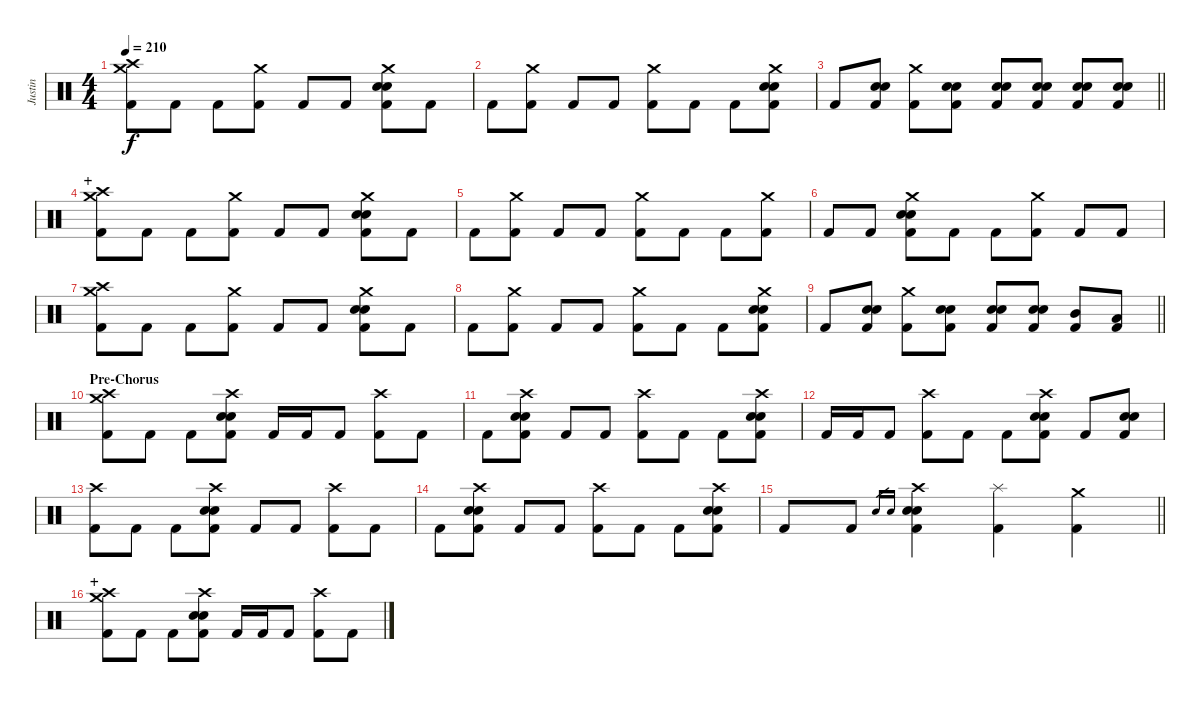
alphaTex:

\track ("Justin" "Justin") {instrument percussion}
\staff {score}
\articulation defaults
\ts (4 4)
\tempo 210
\clef neutral
\ks c
("Crash medium (hit)" "Crash high (hit)" "Kick (hit) 2").8{dy f} "Kick (hit) 2".8 "Kick (hit) 2".8 ("Crash medium (hit)" "Kick (hit) 2").8 "Kick (hit) 2".8 "Kick (hit) 2".8 ("Crash medium (hit)" "Electric Snare (hit)" "Snare (hit) 2" "Kick (hit) 2").8 "Kick (hit) 2".8 |
"Kick (hit) 2".8 ("Crash medium (hit)" "Kick (hit) 2").8 "Kick (hit) 2".8 "Kick (hit) 2".8 ("Crash medium (hit)" "Kick (hit) 2").8 "Kick (hit) 2".8 "Kick (hit) 2".8 ("Crash medium (hit)" "Electric Snare (hit)" "Snare (hit) 2" "Kick (hit) 2").8 |
\barLineRight lightlight "Kick (hit) 2".8
("Electric Snare (hit)" "Snare (hit) 2" "Kick (hit) 2").8 ("Crash medium (hit)" "Kick (hit) 2").8 ("Electric Snare (hit)" "Snare (hit) 2" "Kick (hit) 2").8 ("Electric Snare (hit)" "Snare (hit) 2" "Kick (hit) 2").8 ("Electric Snare (hit)" "Snare (hit) 2" "Kick (hit) 2").8 ("Electric Snare (hit)" "Snare (hit) 2" "Kick (hit) 2").8 ("Electric Snare (hit)" "Snare (hit) 2" "Kick (hit) 2").8 |
\section ("" "+")
("Crash medium (hit)" "Crash high (hit)" "Kick (hit) 2").8 "Kick (hit) 2".8 "Kick (hit) 2".8 ("Crash medium (hit)" "Kick (hit) 2").8 "Kick (hit) 2".8 "Kick (hit) 2".8 ("Crash medium (hit)" "Electric Snare (hit)" "Snare (hit) 2" "Kick (hit) 2").8 "Kick (hit) 2".8 |
"Kick (hit) 2".8 ("Crash medium (hit)" "Kick (hit) 2").8 "Kick (hit) 2".8 "Kick (hit) 2".8 ("Crash medium (hit)" "Kick (hit) 2").8 "Kick (hit) 2".8 "Kick (hit) 2".8 ("Crash medium (hit)" "Kick (hit) 2").8 |
"Kick (hit) 2".8 "Kick (hit) 2".8 ("Crash medium (hit)" "Electric Snare (hit)" "Snare (hit) 2" "Kick (hit) 2").8 "Kick (hit) 2".8 "Kick (hit) 2".8 ("Crash medium (hit)" "Kick (hit) 2").8 "Kick (hit) 2".8 "Kick (hit) 2".8 |
("Crash medium (hit)" "Crash high (hit)" "Kick (hit) 2").8 "Kick (hit) 2".8 "Kick (hit) 2".8 ("Crash medium (hit)" "Kick (hit) 2").8 "Kick (hit) 2".8 "Kick (hit) 2".8 ("Crash medium (hit)" "Electric Snare (hit)" "Snare (hit) 2" "Kick (hit) 2").8 "Kick (hit) 2".8 |
"Kick (hit) 2".8 ("Crash medium (hit)" "Kick (hit) 2").8 "Kick (hit) 2".8 "Kick (hit) 2".8 ("Crash medium (hit)" "Kick (hit) 2").8 "Kick (hit) 2".8 "Kick (hit) 2".8 ("Crash medium (hit)" "Electric Snare (hit)" "Snare (hit) 2" "Kick (hit) 2").8 |
\barLineRight lightlight "Kick (hit) 2".8
("Electric Snare (hit)" "Snare (hit) 2" "Kick (hit) 2").8 ("Crash medium (hit)" "Kick (hit) 2").8 ("Electric Snare (hit)" "Snare (hit) 2" "Kick (hit) 2").8 ("Electric Snare (hit)" "Snare (hit) 2" "Kick (hit) 2").8 ("Electric Snare (hit)" "Snare (hit) 2" "Kick (hit) 2").8 ("Mid Tom (hit)" "Kick (hit) 2").8 ("Low Tom (hit)" "Kick (hit) 2").8 |
\section ("" "Pre-Chorus")
("Crash high (hit)" "Crash medium (hit)" "Kick (hit) 2").8 "Kick (hit) 2".8 "Kick (hit) 2".8 ("Crash high (hit)" "Electric Snare (hit)" "Snare (hit) 2" "Kick (hit) 2").8 "Kick (hit) 2".16 "Kick (hit) 2".16 "Kick (hit) 2".8 ("Crash high (hit)" "Kick (hit) 2").8 "Kick (hit) 2".8 |
"Kick (hit) 2".8 ("Crash high (hit)" "Electric Snare (hit)" "Snare (hit) 2" "Kick (hit) 2").8 "Kick (hit) 2".8 "Kick (hit) 2".8 ("Crash high (hit)" "Kick (hit) 2").8 "Kick (hit) 2".8 "Kick (hit) 2".8 ("Crash high (hit)" "Electric Snare (hit)" "Snare (hit) 2" "Kick (hit) 2").8 |
"Kick (hit) 2".16 "Kick (hit) 2".16 "Kick (hit) 2".8 ("Crash high (hit)" "Kick (hit) 2").8 "Kick (hit) 2".8 "Kick (hit) 2".8 ("Crash high (hit)" "Electric Snare (hit)" "Snare (hit) 2" "Kick (hit) 2").8 "Kick (hit) 2".8 ("Electric Snare (hit)" "Snare (hit) 2" "Kick (hit) 2").8 |
("Crash high (hit)" "Kick (hit) 2").8 "Kick (hit) 2".8 "Kick (hit) 2".8 ("Crash high (hit)" "Electric Snare (hit)" "Snare (hit) 2" "Kick (hit) 2").8 "Kick (hit) 2".8 "Kick (hit) 2".8 ("Crash high (hit)" "Kick (hit) 2").8 "Kick (hit) 2".8 |
"Kick (hit) 2".8 ("Crash high (hit)" "Electric Snare (hit)" "Snare (hit) 2" "Kick (hit) 2").8 "Kick (hit) 2".8 "Kick (hit) 2".8 ("Crash high (hit)" "Kick (hit) 2").8 "Kick (hit) 2".8 "Kick (hit) 2".8 ("Crash high (hit)" "Electric Snare (hit)" "Snare (hit) 2" "Kick (hit) 2").8 |
\barLineRight lightlight "Kick (hit) 2".8 "Kick (hit) 2".8 "Electric Snare (hit)".16{gr} "Snare (hit) 2".16{gr}
("Crash high (hit)" "Electric Snare (hit)" "Snare (hit) 2" "Kick (hit) 2").4 ("Splash (hit)" "Kick (hit) 2").4 ("Crash medium (hit)" "Kick (hit) 2").4 |
\section ("" "+")
("Crash high (hit)" "Crash medium (hit)" "Kick (hit) 2").8 "Kick (hit) 2".8 "Kick (hit) 2".8 ("Crash high (hit)" "Electric Snare (hit)" "Snare (hit) 2" "Kick (hit) 2").8 "Kick (hit) 2".16 "Kick (hit) 2".16 "Kick (hit) 2".8 ("Crash high (hit)" "Kick (hit) 2").8 "Kick (hit) 2".8
